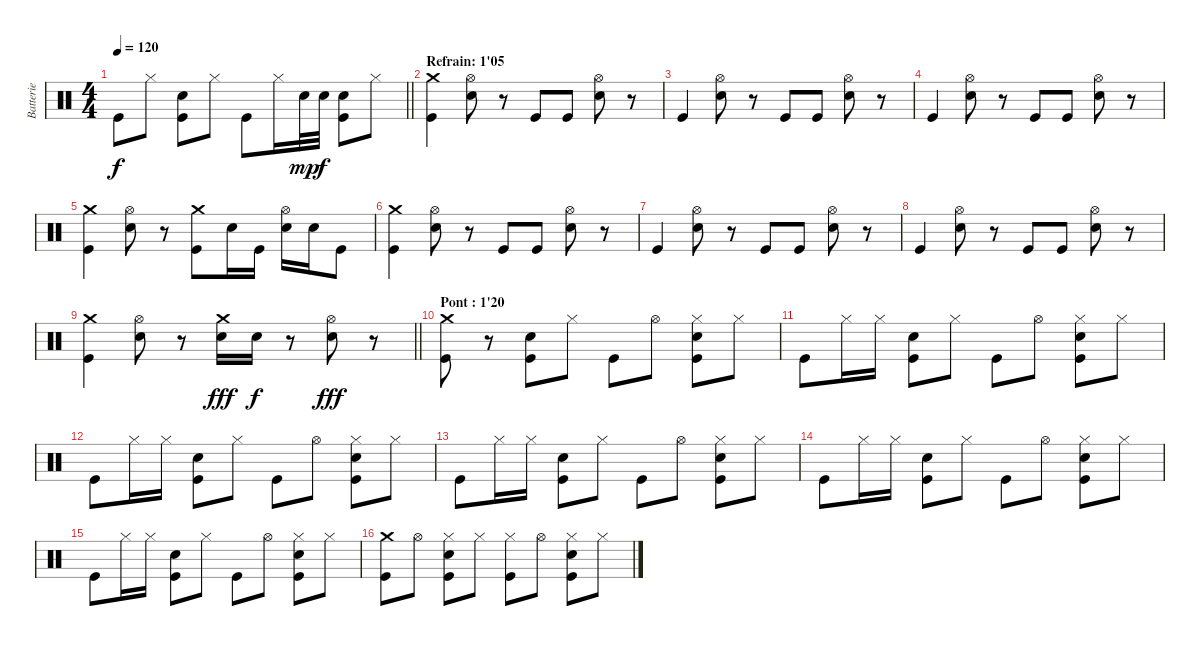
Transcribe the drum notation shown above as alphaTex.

\track ("Batterie" "Batterie") {instrument percussion}
\staff {score}
\articulation defaults
\ts (4 4)
\tempo 120
\clef neutral
\barLineRight lightlight
\ks c "Kick (hit)".8{dy f} "Hi-Hat (closed)".8
("Snare (hit) 2" "Kick (hit)").8 "Hi-Hat (closed)".8 "Kick (hit)".8 "Hi-Hat (closed)".16 "Snare (hit) 2".32{dy mp} "Snare (hit) 2".32{dy f} ("Snare (hit) 2" "Kick (hit)").8 "Hi-Hat (closed)".8 |
\section ("" "Refrain: 1'05")
("Crash medium (hit)" "Kick (hit)").4 ("Hi-Hat (open)" "Snare (hit) 2").8 r.8 "Kick (hit)".8 "Kick (hit)".8 ("Hi-Hat (open)" "Snare (hit) 2").8 r.8 |
"Kick (hit)".4 ("Hi-Hat (open)" "Snare (hit) 2").8 r.8 "Kick (hit)".8 "Kick (hit)".8 ("Hi-Hat (open)" "Snare (hit) 2").8 r.8 |
"Kick (hit)".4 ("Hi-Hat (open)" "Snare (hit) 2").8 r.8 "Kick (hit)".8 "Kick (hit)".8 ("Hi-Hat (open)" "Snare (hit) 2").8 r.8 |
("Crash medium (hit)" "Kick (hit)").4 ("Hi-Hat (open)" "Snare (hit) 2").8 r.8 ("Crash medium (hit)" "Kick (hit)").8 "Snare (hit) 2".16 "Kick (hit)".16 ("Hi-Hat (open)" "Snare (hit) 2").16 "Snare (hit) 2".16 "Kick (hit)".8 |
("Crash medium (hit)" "Kick (hit)").4 ("Hi-Hat (open)" "Snare (hit) 2").8 r.8 "Kick (hit)".8 "Kick (hit)".8 ("Hi-Hat (open)" "Snare (hit) 2").8 r.8 |
"Kick (hit)".4 ("Hi-Hat (open)" "Snare (hit) 2").8 r.8 "Kick (hit)".8 "Kick (hit)".8 ("Hi-Hat (open)" "Snare (hit) 2").8 r.8 |
"Kick (hit)".4 ("Hi-Hat (open)" "Snare (hit) 2").8 r.8 "Kick (hit)".8 "Kick (hit)".8 ("Hi-Hat (open)" "Snare (hit) 2").8 r.8 |
\barLineRight lightlight
("Crash medium (hit)" "Kick (hit)").4 ("Hi-Hat (open)" "Snare (hit) 2").8 r.8 ("Crash medium (hit)" "Snare (hit) 2").16{dy fff} "Snare (hit) 2".16{dy f} r.8 ("Hi-Hat (open)" "Snare (hit) 2").8{dy fff} r.8 |
\section ("" "Pont : 1'20")
("Crash medium (hit)" "Kick (hit)").8 r.8 ("Snare (hit) 2" "Kick (hit)").8 "Hi-Hat (closed)".8 "Kick (hit)".8 "Hi-Hat (open)".8 ("Hi-Hat (closed)" "Snare (hit) 2" "Kick (hit)").8 "Hi-Hat (closed)".8 |
"Kick (hit)".8 "Hi-Hat (closed)".16 "Hi-Hat (closed)".16 ("Snare (hit) 2" "Kick (hit)").8 "Hi-Hat (closed)".8 "Kick (hit)".8 "Hi-Hat (open)".8 ("Hi-Hat (closed)" "Snare (hit) 2" "Kick (hit)").8 "Hi-Hat (closed)".8 |
"Kick (hit)".8 "Hi-Hat (closed)".16 "Hi-Hat (closed)".16 ("Snare (hit) 2" "Kick (hit)").8 "Hi-Hat (closed)".8 "Kick (hit)".8 "Hi-Hat (open)".8 ("Hi-Hat (closed)" "Snare (hit) 2" "Kick (hit)").8 "Hi-Hat (closed)".8 |
"Kick (hit)".8 "Hi-Hat (closed)".16 "Hi-Hat (closed)".16 ("Snare (hit) 2" "Kick (hit)").8 "Hi-Hat (closed)".8 "Kick (hit)".8 "Hi-Hat (open)".8 ("Hi-Hat (closed)" "Snare (hit) 2" "Kick (hit)").8 "Hi-Hat (closed)".8 |
"Kick (hit)".8 "Hi-Hat (closed)".16 "Hi-Hat (closed)".16 ("Snare (hit) 2" "Kick (hit)").8 "Hi-Hat (closed)".8 "Kick (hit)".8 "Hi-Hat (open)".8 ("Hi-Hat (closed)" "Snare (hit) 2" "Kick (hit)").8 "Hi-Hat (closed)".8 |
"Kick (hit)".8 "Hi-Hat (closed)".16 "Hi-Hat (closed)".16 ("Snare (hit) 2" "Kick (hit)").8 "Hi-Hat (closed)".8 "Kick (hit)".8 "Hi-Hat (open)".8 ("Hi-Hat (closed)" "Snare (hit) 2" "Kick (hit)").8 "Hi-Hat (closed)".8 |
("Crash medium (hit)" "Kick (hit)").8 "Hi-Hat (open)".8 ("Hi-Hat (closed)" "Snare (hit) 2" "Kick (hit)").8 "Hi-Hat (closed)".8 ("Hi-Hat (closed)" "Kick (hit)").8 "Hi-Hat (open)".8 ("Hi-Hat (closed)" "Snare (hit) 2" "Kick (hit)").8 "Hi-Hat (closed)".8
